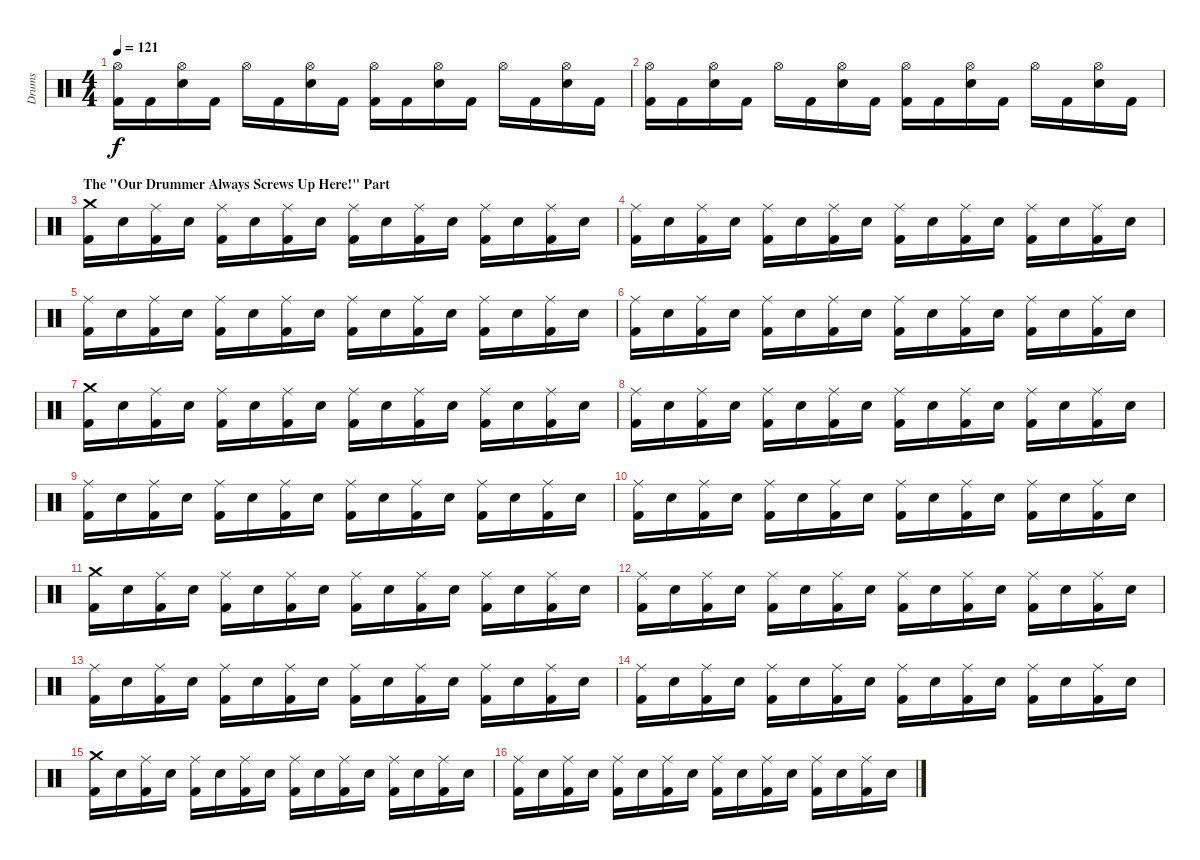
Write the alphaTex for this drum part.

\track ("Drums" "Drums") {instrument percussion}
\staff {score}
\articulation defaults
\ts (4 4)
\tempo 121
\clef neutral
\ks c
("Hi-Hat (open)" "Kick (hit) 2").16{dy f} "Kick (hit) 2".16 ("Hi-Hat (open)" "Electric Snare (hit)").16 "Kick (hit) 2".16 "Hi-Hat (open)".16 "Kick (hit) 2".16 ("Hi-Hat (open)" "Electric Snare (hit)").16 "Kick (hit) 2".16 ("Hi-Hat (open)" "Kick (hit) 2").16 "Kick (hit) 2".16 ("Hi-Hat (open)" "Electric Snare (hit)").16 "Kick (hit) 2".16 "Hi-Hat (open)".16 "Kick (hit) 2".16 ("Hi-Hat (open)" "Electric Snare (hit)").16 "Kick (hit) 2".16 |
("Hi-Hat (open)" "Kick (hit) 2").16 "Kick (hit) 2".16 ("Hi-Hat (open)" "Electric Snare (hit)").16 "Kick (hit) 2".16 "Hi-Hat (open)".16 "Kick (hit) 2".16 ("Hi-Hat (open)" "Electric Snare (hit)").16 "Kick (hit) 2".16 ("Hi-Hat (open)" "Kick (hit) 2").16 "Kick (hit) 2".16 ("Hi-Hat (open)" "Electric Snare (hit)").16 "Kick (hit) 2".16 "Hi-Hat (open)".16 "Kick (hit) 2".16 ("Hi-Hat (open)" "Electric Snare (hit)").16 "Kick (hit) 2".16 |
\section ("" "The \"Our Drummer Always Screws Up Here!\" Part")
("Crash medium (hit)" "Kick (hit) 2").16 "Electric Snare (hit)".16 ("Ride (middle)" "Kick (hit) 2").16 "Electric Snare (hit)".16 ("Ride (middle)" "Kick (hit) 2").16 "Electric Snare (hit)".16 ("Ride (middle)" "Kick (hit) 2").16 "Electric Snare (hit)".16 ("Ride (middle)" "Kick (hit) 2").16 "Electric Snare (hit)".16 ("Ride (middle)" "Kick (hit) 2").16 "Electric Snare (hit)".16 ("Ride (middle)" "Kick (hit) 2").16 "Electric Snare (hit)".16 ("Ride (middle)" "Kick (hit) 2").16 "Electric Snare (hit)".16 |
("Ride (middle)" "Kick (hit) 2").16 "Electric Snare (hit)".16 ("Ride (middle)" "Kick (hit) 2").16 "Electric Snare (hit)".16 ("Ride (middle)" "Kick (hit) 2").16 "Electric Snare (hit)".16 ("Ride (middle)" "Kick (hit) 2").16 "Electric Snare (hit)".16 ("Ride (middle)" "Kick (hit) 2").16 "Electric Snare (hit)".16 ("Ride (middle)" "Kick (hit) 2").16 "Electric Snare (hit)".16 ("Ride (middle)" "Kick (hit) 2").16 "Electric Snare (hit)".16 ("Ride (middle)" "Kick (hit) 2").16 "Electric Snare (hit)".16 |
("Ride (middle)" "Kick (hit) 2").16 "Electric Snare (hit)".16 ("Ride (middle)" "Kick (hit) 2").16 "Electric Snare (hit)".16 ("Ride (middle)" "Kick (hit) 2").16 "Electric Snare (hit)".16 ("Ride (middle)" "Kick (hit) 2").16 "Electric Snare (hit)".16 ("Ride (middle)" "Kick (hit) 2").16 "Electric Snare (hit)".16 ("Ride (middle)" "Kick (hit) 2").16 "Electric Snare (hit)".16 ("Ride (middle)" "Kick (hit) 2").16 "Electric Snare (hit)".16 ("Ride (middle)" "Kick (hit) 2").16 "Electric Snare (hit)".16 |
("Ride (middle)" "Kick (hit) 2").16 "Electric Snare (hit)".16 ("Ride (middle)" "Kick (hit) 2").16 "Electric Snare (hit)".16 ("Ride (middle)" "Kick (hit) 2").16 "Electric Snare (hit)".16 ("Ride (middle)" "Kick (hit) 2").16 "Electric Snare (hit)".16 ("Ride (middle)" "Kick (hit) 2").16 "Electric Snare (hit)".16 ("Ride (middle)" "Kick (hit) 2").16 "Electric Snare (hit)".16 ("Ride (middle)" "Kick (hit) 2").16 "Electric Snare (hit)".16 ("Ride (middle)" "Kick (hit) 2").16 "Electric Snare (hit)".16 |
("Crash medium (hit)" "Kick (hit) 2").16 "Electric Snare (hit)".16 ("Ride (middle)" "Kick (hit) 2").16 "Electric Snare (hit)".16 ("Ride (middle)" "Kick (hit) 2").16 "Electric Snare (hit)".16 ("Ride (middle)" "Kick (hit) 2").16 "Electric Snare (hit)".16 ("Ride (middle)" "Kick (hit) 2").16 "Electric Snare (hit)".16 ("Ride (middle)" "Kick (hit) 2").16 "Electric Snare (hit)".16 ("Ride (middle)" "Kick (hit) 2").16 "Electric Snare (hit)".16 ("Ride (middle)" "Kick (hit) 2").16 "Electric Snare (hit)".16 |
("Ride (middle)" "Kick (hit) 2").16 "Electric Snare (hit)".16 ("Ride (middle)" "Kick (hit) 2").16 "Electric Snare (hit)".16 ("Ride (middle)" "Kick (hit) 2").16 "Electric Snare (hit)".16 ("Ride (middle)" "Kick (hit) 2").16 "Electric Snare (hit)".16 ("Ride (middle)" "Kick (hit) 2").16 "Electric Snare (hit)".16 ("Ride (middle)" "Kick (hit) 2").16 "Electric Snare (hit)".16 ("Ride (middle)" "Kick (hit) 2").16 "Electric Snare (hit)".16 ("Ride (middle)" "Kick (hit) 2").16 "Electric Snare (hit)".16 |
("Ride (middle)" "Kick (hit) 2").16 "Electric Snare (hit)".16 ("Ride (middle)" "Kick (hit) 2").16 "Electric Snare (hit)".16 ("Ride (middle)" "Kick (hit) 2").16 "Electric Snare (hit)".16 ("Ride (middle)" "Kick (hit) 2").16 "Electric Snare (hit)".16 ("Ride (middle)" "Kick (hit) 2").16 "Electric Snare (hit)".16 ("Ride (middle)" "Kick (hit) 2").16 "Electric Snare (hit)".16 ("Ride (middle)" "Kick (hit) 2").16 "Electric Snare (hit)".16 ("Ride (middle)" "Kick (hit) 2").16 "Electric Snare (hit)".16 |
("Ride (middle)" "Kick (hit) 2").16 "Electric Snare (hit)".16 ("Ride (middle)" "Kick (hit) 2").16 "Electric Snare (hit)".16 ("Ride (middle)" "Kick (hit) 2").16 "Electric Snare (hit)".16 ("Ride (middle)" "Kick (hit) 2").16 "Electric Snare (hit)".16 ("Ride (middle)" "Kick (hit) 2").16 "Electric Snare (hit)".16 ("Ride (middle)" "Kick (hit) 2").16 "Electric Snare (hit)".16 ("Ride (middle)" "Kick (hit) 2").16 "Electric Snare (hit)".16 ("Ride (middle)" "Kick (hit) 2").16 "Electric Snare (hit)".16 |
("Crash medium (hit)" "Kick (hit) 2").16 "Electric Snare (hit)".16 ("Ride (middle)" "Kick (hit) 2").16 "Electric Snare (hit)".16 ("Ride (middle)" "Kick (hit) 2").16 "Electric Snare (hit)".16 ("Ride (middle)" "Kick (hit) 2").16 "Electric Snare (hit)".16 ("Ride (middle)" "Kick (hit) 2").16 "Electric Snare (hit)".16 ("Ride (middle)" "Kick (hit) 2").16 "Electric Snare (hit)".16 ("Ride (middle)" "Kick (hit) 2").16 "Electric Snare (hit)".16 ("Ride (middle)" "Kick (hit) 2").16 "Electric Snare (hit)".16 |
("Ride (middle)" "Kick (hit) 2").16 "Electric Snare (hit)".16 ("Ride (middle)" "Kick (hit) 2").16 "Electric Snare (hit)".16 ("Ride (middle)" "Kick (hit) 2").16 "Electric Snare (hit)".16 ("Ride (middle)" "Kick (hit) 2").16 "Electric Snare (hit)".16 ("Ride (middle)" "Kick (hit) 2").16 "Electric Snare (hit)".16 ("Ride (middle)" "Kick (hit) 2").16 "Electric Snare (hit)".16 ("Ride (middle)" "Kick (hit) 2").16 "Electric Snare (hit)".16 ("Ride (middle)" "Kick (hit) 2").16 "Electric Snare (hit)".16 |
("Ride (middle)" "Kick (hit) 2").16 "Electric Snare (hit)".16 ("Ride (middle)" "Kick (hit) 2").16 "Electric Snare (hit)".16 ("Ride (middle)" "Kick (hit) 2").16 "Electric Snare (hit)".16 ("Ride (middle)" "Kick (hit) 2").16 "Electric Snare (hit)".16 ("Ride (middle)" "Kick (hit) 2").16 "Electric Snare (hit)".16 ("Ride (middle)" "Kick (hit) 2").16 "Electric Snare (hit)".16 ("Ride (middle)" "Kick (hit) 2").16 "Electric Snare (hit)".16 ("Ride (middle)" "Kick (hit) 2").16 "Electric Snare (hit)".16 |
("Ride (middle)" "Kick (hit) 2").16 "Electric Snare (hit)".16 ("Ride (middle)" "Kick (hit) 2").16 "Electric Snare (hit)".16 ("Ride (middle)" "Kick (hit) 2").16 "Electric Snare (hit)".16 ("Ride (middle)" "Kick (hit) 2").16 "Electric Snare (hit)".16 ("Ride (middle)" "Kick (hit) 2").16 "Electric Snare (hit)".16 ("Ride (middle)" "Kick (hit) 2").16 "Electric Snare (hit)".16 ("Ride (middle)" "Kick (hit) 2").16 "Electric Snare (hit)".16 ("Ride (middle)" "Kick (hit) 2").16 "Electric Snare (hit)".16 |
("Crash medium (hit)" "Kick (hit) 2").16 "Electric Snare (hit)".16 ("Ride (middle)" "Kick (hit) 2").16 "Electric Snare (hit)".16 ("Ride (middle)" "Kick (hit) 2").16 "Electric Snare (hit)".16 ("Ride (middle)" "Kick (hit) 2").16 "Electric Snare (hit)".16 ("Ride (middle)" "Kick (hit) 2").16 "Electric Snare (hit)".16 ("Ride (middle)" "Kick (hit) 2").16 "Electric Snare (hit)".16 ("Ride (middle)" "Kick (hit) 2").16 "Electric Snare (hit)".16 ("Ride (middle)" "Kick (hit) 2").16 "Electric Snare (hit)".16 |
("Ride (middle)" "Kick (hit) 2").16 "Electric Snare (hit)".16 ("Ride (middle)" "Kick (hit) 2").16 "Electric Snare (hit)".16 ("Ride (middle)" "Kick (hit) 2").16 "Electric Snare (hit)".16 ("Ride (middle)" "Kick (hit) 2").16 "Electric Snare (hit)".16 ("Ride (middle)" "Kick (hit) 2").16 "Electric Snare (hit)".16 ("Ride (middle)" "Kick (hit) 2").16 "Electric Snare (hit)".16 ("Ride (middle)" "Kick (hit) 2").16 "Electric Snare (hit)".16 ("Ride (middle)" "Kick (hit) 2").16 "Electric Snare (hit)".16
